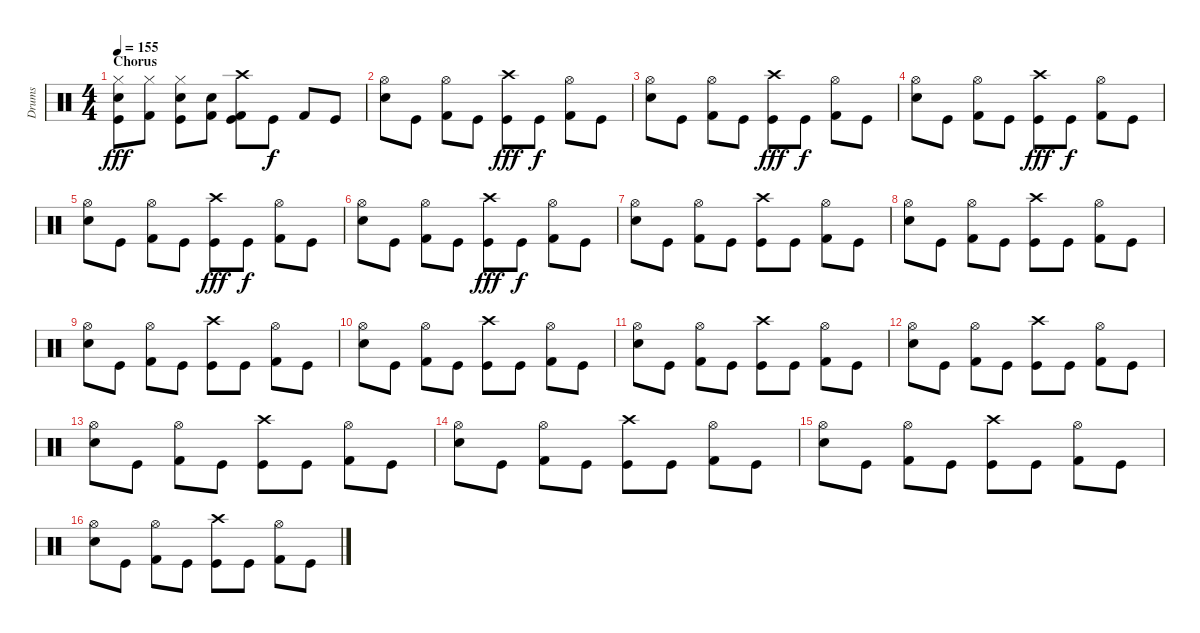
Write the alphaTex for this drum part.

\track ("Drums" "Drums") {instrument percussion}
\staff {score}
\articulation defaults
\ts (4 4)
\section ("" "Chorus")
\tempo 155
\clef neutral
\ks c
("Electric Snare (hit)" "Kick (hit)" "Hi-Hat (closed)").8{dy fff} ("Kick (hit) 2" "Hi-Hat (closed)").8 ("Electric Snare (hit)" "Kick (hit)" "Hi-Hat (closed)").8 ("Electric Snare (hit)" "Kick (hit) 2").8 ("Kick (hit)" "Kick (hit) 2" "Crash high (hit)").8 "Kick (hit)".8{dy f} "Kick (hit) 2".8 "Kick (hit)".8 |
("Electric Snare (hit)" "Hi-Hat (open)").8 "Kick (hit)".8 ("Kick (hit) 2" "Hi-Hat (open)").8 "Kick (hit)".8 ("Kick (hit)" "Crash high (hit)").8{dy fff} "Kick (hit)".8{dy f} ("Kick (hit) 2" "Hi-Hat (open)").8 "Kick (hit)".8 |
("Electric Snare (hit)" "Hi-Hat (open)").8 "Kick (hit)".8 ("Kick (hit) 2" "Hi-Hat (open)").8 "Kick (hit)".8 ("Kick (hit)" "Crash high (hit)").8{dy fff} "Kick (hit)".8{dy f} ("Kick (hit) 2" "Hi-Hat (open)").8 "Kick (hit)".8 |
("Electric Snare (hit)" "Hi-Hat (open)").8 "Kick (hit)".8 ("Kick (hit) 2" "Hi-Hat (open)").8 "Kick (hit)".8 ("Kick (hit)" "Crash high (hit)").8{dy fff} "Kick (hit)".8{dy f} ("Kick (hit) 2" "Hi-Hat (open)").8 "Kick (hit)".8 |
("Electric Snare (hit)" "Hi-Hat (open)").8 "Kick (hit)".8 ("Kick (hit) 2" "Hi-Hat (open)").8 "Kick (hit)".8 ("Kick (hit)" "Crash high (hit)").8{dy fff} "Kick (hit)".8{dy f} ("Kick (hit) 2" "Hi-Hat (open)").8 "Kick (hit)".8 |
("Electric Snare (hit)" "Hi-Hat (open)").8 "Kick (hit)".8 ("Kick (hit) 2" "Hi-Hat (open)").8 "Kick (hit)".8 ("Kick (hit)" "Crash high (hit)").8{dy fff} "Kick (hit)".8{dy f} ("Kick (hit) 2" "Hi-Hat (open)").8 "Kick (hit)".8 |
("Electric Snare (hit)" "Hi-Hat (open)").8 "Kick (hit)".8 ("Kick (hit) 2" "Hi-Hat (open)").8 "Kick (hit)".8 ("Kick (hit)" "Crash high (hit)").8 "Kick (hit)".8 ("Kick (hit) 2" "Hi-Hat (open)").8 "Kick (hit)".8 |
("Electric Snare (hit)" "Hi-Hat (open)").8 "Kick (hit)".8 ("Kick (hit) 2" "Hi-Hat (open)").8 "Kick (hit)".8 ("Kick (hit)" "Crash high (hit)").8 "Kick (hit)".8 ("Kick (hit) 2" "Hi-Hat (open)").8 "Kick (hit)".8 |
("Electric Snare (hit)" "Hi-Hat (open)").8 "Kick (hit)".8 ("Kick (hit) 2" "Hi-Hat (open)").8 "Kick (hit)".8 ("Kick (hit)" "Crash high (hit)").8 "Kick (hit)".8 ("Kick (hit) 2" "Hi-Hat (open)").8 "Kick (hit)".8 |
("Electric Snare (hit)" "Hi-Hat (open)").8 "Kick (hit)".8 ("Kick (hit) 2" "Hi-Hat (open)").8 "Kick (hit)".8 ("Kick (hit)" "Crash high (hit)").8 "Kick (hit)".8 ("Kick (hit) 2" "Hi-Hat (open)").8 "Kick (hit)".8 |
("Electric Snare (hit)" "Hi-Hat (open)").8 "Kick (hit)".8 ("Kick (hit) 2" "Hi-Hat (open)").8 "Kick (hit)".8 ("Kick (hit)" "Crash high (hit)").8 "Kick (hit)".8 ("Kick (hit) 2" "Hi-Hat (open)").8 "Kick (hit)".8 |
("Electric Snare (hit)" "Hi-Hat (open)").8 "Kick (hit)".8 ("Kick (hit) 2" "Hi-Hat (open)").8 "Kick (hit)".8 ("Kick (hit)" "Crash high (hit)").8 "Kick (hit)".8 ("Kick (hit) 2" "Hi-Hat (open)").8 "Kick (hit)".8 |
("Electric Snare (hit)" "Hi-Hat (open)").8 "Kick (hit)".8 ("Kick (hit) 2" "Hi-Hat (open)").8 "Kick (hit)".8 ("Kick (hit)" "Crash high (hit)").8 "Kick (hit)".8 ("Kick (hit) 2" "Hi-Hat (open)").8 "Kick (hit)".8 |
("Electric Snare (hit)" "Hi-Hat (open)").8 "Kick (hit)".8 ("Kick (hit) 2" "Hi-Hat (open)").8 "Kick (hit)".8 ("Kick (hit)" "Crash high (hit)").8 "Kick (hit)".8 ("Kick (hit) 2" "Hi-Hat (open)").8 "Kick (hit)".8 |
("Electric Snare (hit)" "Hi-Hat (open)").8 "Kick (hit)".8 ("Kick (hit) 2" "Hi-Hat (open)").8 "Kick (hit)".8 ("Kick (hit)" "Crash high (hit)").8 "Kick (hit)".8 ("Kick (hit) 2" "Hi-Hat (open)").8 "Kick (hit)".8 |
("Electric Snare (hit)" "Hi-Hat (open)").8 "Kick (hit)".8 ("Kick (hit) 2" "Hi-Hat (open)").8 "Kick (hit)".8 ("Kick (hit)" "Crash high (hit)").8 "Kick (hit)".8 ("Kick (hit) 2" "Hi-Hat (open)").8 "Kick (hit)".8
